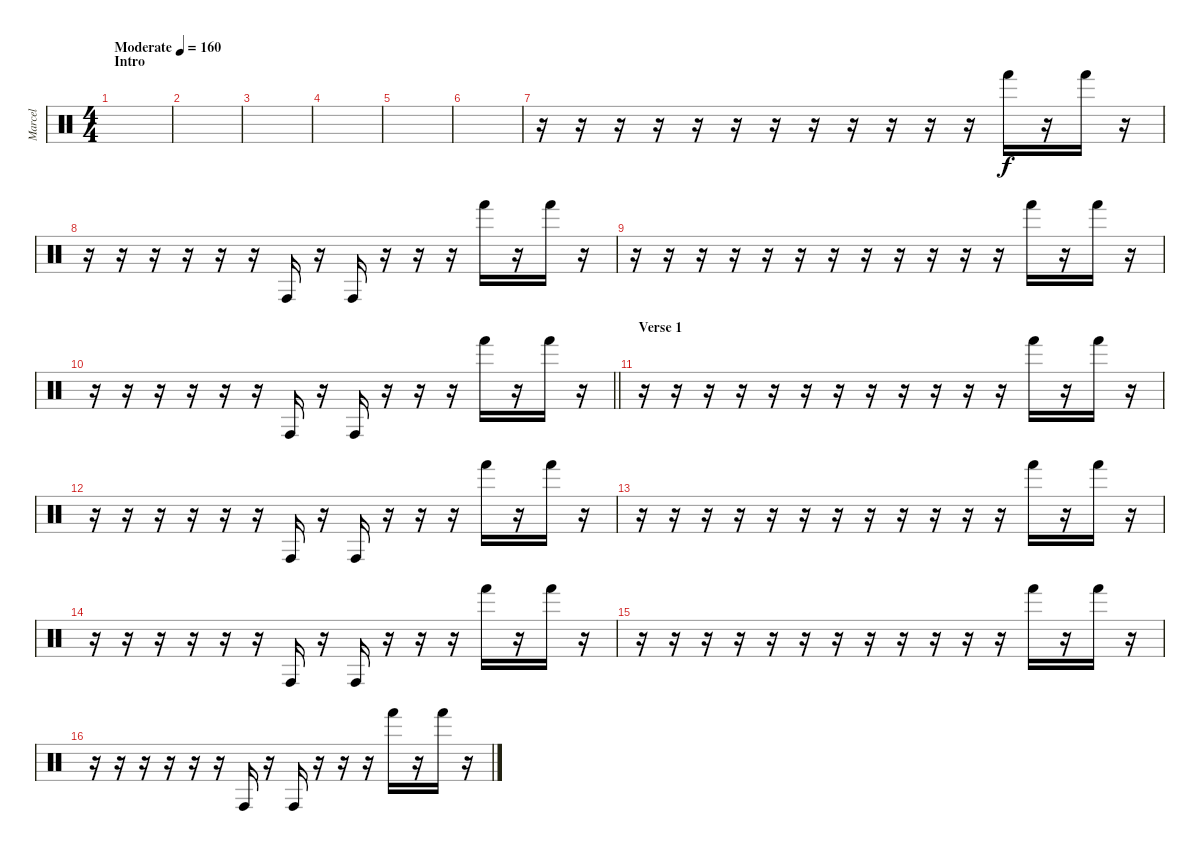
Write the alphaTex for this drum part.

\track ("Marcel" "Marcel") {instrument percussion}
\staff {score}
\articulation defaults
\ts (4 4)
\section ("" "Intro")
\tempo (160 "Moderate")
\clef neutral
\ks c
|
|
|
|
|
|
r.16 r.16 r.16 r.16 r.16 r.16 r.16 r.16 r.16 r.16 r.16 r.16 "Hand (hit)".16 r.16 "Hand (hit)".16 r.16 |
r.16 r.16 r.16 r.16 r.16 r.16 "Conga high (hit)".16 r.16 "Conga high (hit)".16 r.16 r.16 r.16 "Hand (hit)".16 r.16 "Hand (hit)".16 r.16 |
r.16 r.16 r.16 r.16 r.16 r.16 r.16 r.16 r.16 r.16 r.16 r.16 "Hand (hit)".16 r.16 "Hand (hit)".16 r.16 |
\barLineRight lightlight
r.16 r.16 r.16 r.16 r.16 r.16 "Conga high (hit)".16 r.16 "Conga high (hit)".16 r.16 r.16 r.16 "Hand (hit)".16 r.16 "Hand (hit)".16 r.16 |
\section ("" "Verse 1")
r.16 r.16 r.16 r.16 r.16 r.16 r.16 r.16 r.16 r.16 r.16 r.16 "Hand (hit)".16 r.16 "Hand (hit)".16 r.16 |
r.16 r.16 r.16 r.16 r.16 r.16 "Conga high (hit)".16 r.16 "Conga high (hit)".16 r.16 r.16 r.16 "Hand (hit)".16 r.16 "Hand (hit)".16 r.16 |
r.16 r.16 r.16 r.16 r.16 r.16 r.16 r.16 r.16 r.16 r.16 r.16 "Hand (hit)".16 r.16 "Hand (hit)".16 r.16 |
r.16 r.16 r.16 r.16 r.16 r.16 "Conga high (hit)".16 r.16 "Conga high (hit)".16 r.16 r.16 r.16 "Hand (hit)".16 r.16 "Hand (hit)".16 r.16 |
r.16 r.16 r.16 r.16 r.16 r.16 r.16 r.16 r.16 r.16 r.16 r.16 "Hand (hit)".16 r.16 "Hand (hit)".16 r.16 |
r.16 r.16 r.16 r.16 r.16 r.16 "Conga high (hit)".16 r.16 "Conga high (hit)".16 r.16 r.16 r.16 "Hand (hit)".16 r.16 "Hand (hit)".16 r.16
